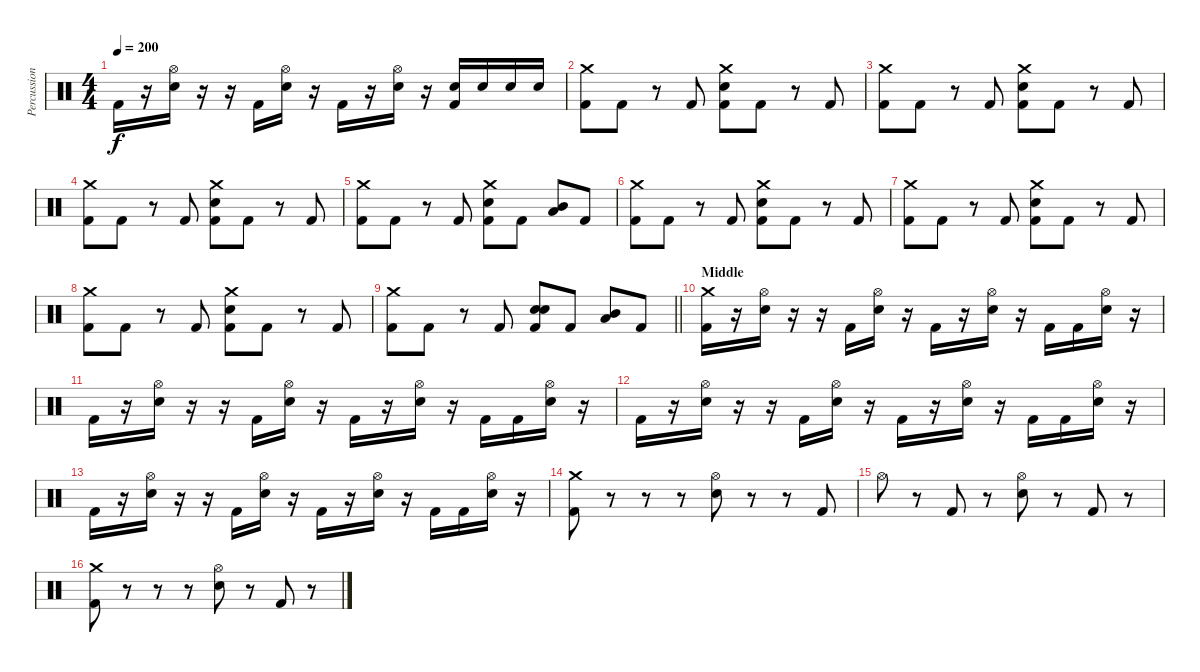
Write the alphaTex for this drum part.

\track ("Percussion" "Percussion") {instrument percussion}
\staff {score}
\articulation defaults
\ts (4 4)
\tempo 200
\clef neutral
\ks c "Kick (hit) 2".16{dy f}
r.16 ("Hi-Hat (open)" "Electric Snare (hit)").16 r.16 r.16 "Kick (hit) 2".16 ("Hi-Hat (open)" "Electric Snare (hit)").16 r.16 "Kick (hit) 2".16 r.16 ("Hi-Hat (open)" "Electric Snare (hit)").16 r.16 ("Electric Snare (hit)" "Kick (hit) 2").16 "Electric Snare (hit)".16 "Electric Snare (hit)".16 "Electric Snare (hit)".16 |
("Crash medium (hit)" "Kick (hit) 2").8 "Kick (hit) 2".8 r.8 "Kick (hit) 2".8 ("Crash medium (hit)" "Electric Snare (hit)" "Kick (hit) 2").8 "Kick (hit) 2".8 r.8 "Kick (hit) 2".8 |
("Crash medium (hit)" "Kick (hit) 2").8 "Kick (hit) 2".8 r.8 "Kick (hit) 2".8 ("Crash medium (hit)" "Electric Snare (hit)" "Kick (hit) 2").8 "Kick (hit) 2".8 r.8 "Kick (hit) 2".8 |
("Crash medium (hit)" "Kick (hit) 2").8 "Kick (hit) 2".8 r.8 "Kick (hit) 2".8 ("Crash medium (hit)" "Electric Snare (hit)" "Kick (hit) 2").8 "Kick (hit) 2".8 r.8 "Kick (hit) 2".8 |
("Crash medium (hit)" "Kick (hit) 2").8 "Kick (hit) 2".8 r.8 "Kick (hit) 2".8 ("Crash medium (hit)" "Electric Snare (hit)" "Kick (hit) 2").8 "Kick (hit) 2".8 ("Mid Tom (hit)" "Low Tom (hit)").8 "Kick (hit) 2".8 |
("Crash medium (hit)" "Kick (hit) 2").8 "Kick (hit) 2".8 r.8 "Kick (hit) 2".8 ("Crash medium (hit)" "Electric Snare (hit)" "Kick (hit) 2").8 "Kick (hit) 2".8 r.8 "Kick (hit) 2".8 |
("Crash medium (hit)" "Kick (hit) 2").8 "Kick (hit) 2".8 r.8 "Kick (hit) 2".8 ("Crash medium (hit)" "Electric Snare (hit)" "Kick (hit) 2").8 "Kick (hit) 2".8 r.8 "Kick (hit) 2".8 |
("Crash medium (hit)" "Kick (hit) 2").8 "Kick (hit) 2".8 r.8 "Kick (hit) 2".8 ("Crash medium (hit)" "Electric Snare (hit)" "Kick (hit) 2").8 "Kick (hit) 2".8 r.8 "Kick (hit) 2".8 |
\barLineRight lightlight
("Crash medium (hit)" "Kick (hit) 2").8 "Kick (hit) 2".8 r.8 "Kick (hit) 2".8 ("Electric Snare (hit)" "Electric Snare (hit)" "Kick (hit) 2").8{bd 30} "Kick (hit) 2".8 ("Mid Tom (hit)" "Low Tom (hit)").8{bd 30} "Kick (hit) 2".8 |
\section ("" "Middle")
("Crash medium (hit)" "Kick (hit) 2").16 r.16 ("Hi-Hat (open)" "Electric Snare (hit)").16 r.16 r.16 "Kick (hit) 2".16 ("Hi-Hat (open)" "Electric Snare (hit)").16 r.16 "Kick (hit) 2".16 r.16 ("Hi-Hat (open)" "Electric Snare (hit)").16 r.16 "Kick (hit) 2".16 "Kick (hit) 2".16 ("Hi-Hat (open)" "Electric Snare (hit)").16 r.16 |
"Kick (hit) 2".16 r.16 ("Hi-Hat (open)" "Electric Snare (hit)").16 r.16 r.16 "Kick (hit) 2".16 ("Hi-Hat (open)" "Electric Snare (hit)").16 r.16 "Kick (hit) 2".16 r.16 ("Hi-Hat (open)" "Electric Snare (hit)").16 r.16 "Kick (hit) 2".16 "Kick (hit) 2".16 ("Hi-Hat (open)" "Electric Snare (hit)").16 r.16 |
"Kick (hit) 2".16 r.16 ("Hi-Hat (open)" "Electric Snare (hit)").16 r.16 r.16 "Kick (hit) 2".16 ("Hi-Hat (open)" "Electric Snare (hit)").16 r.16 "Kick (hit) 2".16 r.16 ("Hi-Hat (open)" "Electric Snare (hit)").16 r.16 "Kick (hit) 2".16 "Kick (hit) 2".16 ("Hi-Hat (open)" "Electric Snare (hit)").16 r.16 |
"Kick (hit) 2".16 r.16 ("Hi-Hat (open)" "Electric Snare (hit)").16 r.16 r.16 "Kick (hit) 2".16 ("Hi-Hat (open)" "Electric Snare (hit)").16 r.16 "Kick (hit) 2".16 r.16 ("Hi-Hat (open)" "Electric Snare (hit)").16 r.16 "Kick (hit) 2".16 "Kick (hit) 2".16 ("Hi-Hat (open)" "Electric Snare (hit)").16 r.16 |
("Crash medium (hit)" "Kick (hit) 2").8 r.8 r.8 r.8 ("Hi-Hat (open)" "Electric Snare (hit)").8 r.8 r.8 "Kick (hit) 2".8 |
"Hi-Hat (open)".8 r.8 "Kick (hit) 2".8 r.8 ("Hi-Hat (open)" "Electric Snare (hit)").8 r.8 "Kick (hit) 2".8 r.8 |
("Crash medium (hit)" "Kick (hit) 2").8 r.8 r.8 r.8 ("Hi-Hat (open)" "Electric Snare (hit)").8 r.8 "Kick (hit) 2".8 r.8
